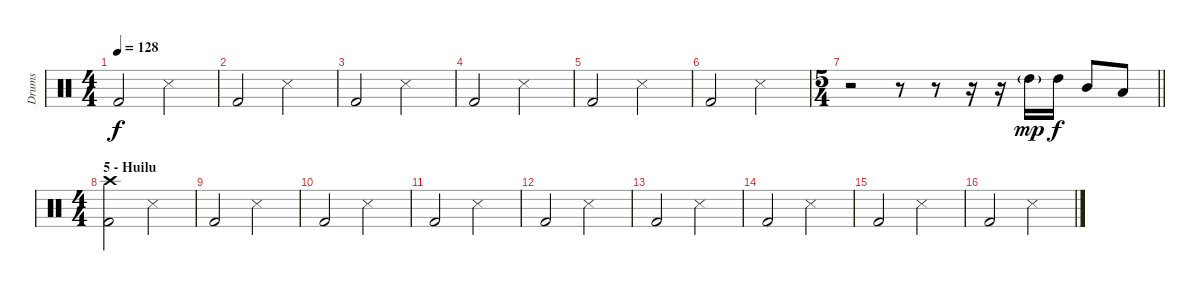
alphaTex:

\track ("Drums" "Drums") {instrument percussion}
\staff {score}
\articulation defaults
\ts (4 4)
\tempo 128
\clef neutral
\ks c "Kick (hit) 2".2{dy f} "Snare (side stick) 3".2
|
"Kick (hit) 2".2 "Snare (side stick) 3".2 |
"Kick (hit) 2".2 "Snare (side stick) 3".2 |
"Kick (hit) 2".2 "Snare (side stick) 3".2 |
"Kick (hit) 2".2 "Snare (side stick) 3".2 |
"Kick (hit) 2".2 "Snare (side stick) 3".2 |
\ts (5 4)
\barLineRight lightlight
r.2 r.8 r.8 r.16 r.16 "High Tom (hit)"{g}.16{dy mp} "High Tom (hit)".16{dy f} "Mid Tom (hit)".8 "Low Tom (hit)".8 |
\ts (4 4)
\section ("" "5 - Huilu")
("Crash high (hit)" "Kick (hit) 2").2 "Snare (side stick) 3".2 |
"Kick (hit) 2".2 "Snare (side stick) 3".2 |
"Kick (hit) 2".2 "Snare (side stick) 3".2 |
"Kick (hit) 2".2 "Snare (side stick) 3".2 |
"Kick (hit) 2".2 "Snare (side stick) 3".2 |
"Kick (hit) 2".2 "Snare (side stick) 3".2 |
"Kick (hit) 2".2 "Snare (side stick) 3".2 |
"Kick (hit) 2".2 "Snare (side stick) 3".2 |
"Kick (hit) 2".2 "Snare (side stick) 3".2
